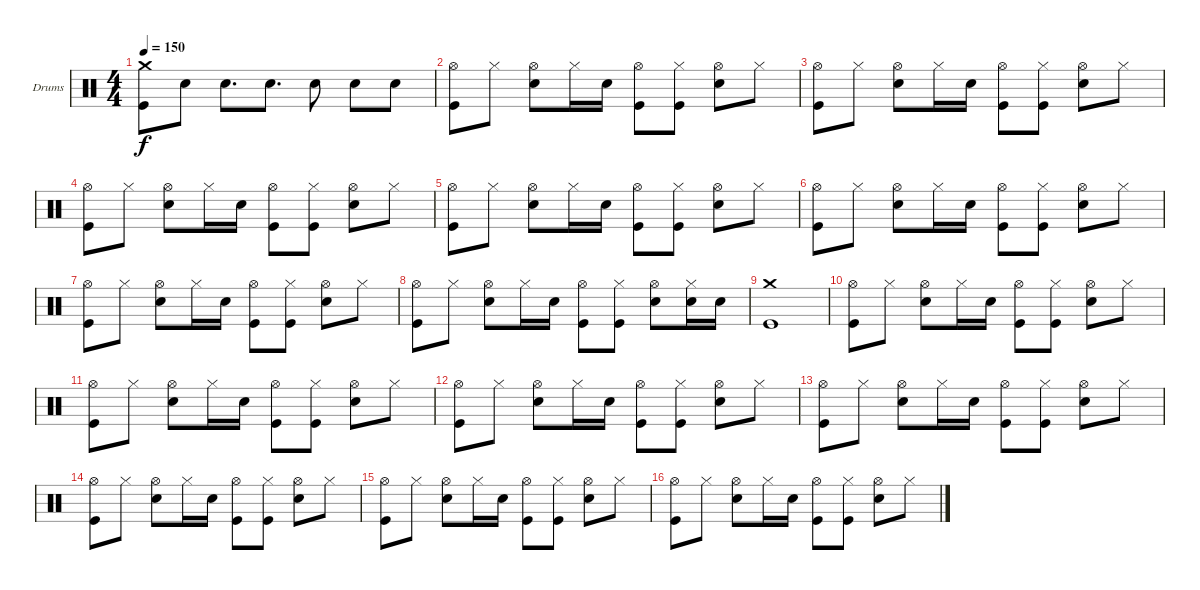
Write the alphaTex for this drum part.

\bracketExtendMode groupsimilarinstruments
\firstSystemTrackNameOrientation horizontal
\otherSystemsTrackNameOrientation horizontal
\track ("Drumkit" "Drums") {instrument percussion}
\staff {score}
\articulation defaults
\ts (4 4)
\tempo 150
\clef neutral
\ks c
("Crash medium (hit)" "Kick (hit)").8{dy f} "Snare (hit) 2".8 "Snare (hit) 2".8{d} "Snare (hit) 2".8{d} "Snare (hit) 2".8 "Snare (hit) 2".8 "Snare (hit) 2".8 |
("Hi-Hat (open)" "Kick (hit)").8 "Hi-Hat (closed)".8 ("Hi-Hat (open)" "Snare (hit) 2").8 "Hi-Hat (closed)".16 "Snare (hit) 2".16 ("Hi-Hat (open)" "Kick (hit)").8 ("Hi-Hat (closed)" "Kick (hit)").8 ("Hi-Hat (open)" "Snare (hit) 2").8 "Hi-Hat (closed)".8 |
("Hi-Hat (open)" "Kick (hit)").8 "Hi-Hat (closed)".8 ("Hi-Hat (open)" "Snare (hit) 2").8 "Hi-Hat (closed)".16 "Snare (hit) 2".16 ("Hi-Hat (open)" "Kick (hit)").8 ("Hi-Hat (closed)" "Kick (hit)").8 ("Hi-Hat (open)" "Snare (hit) 2").8 "Hi-Hat (closed)".8 |
("Hi-Hat (open)" "Kick (hit)").8 "Hi-Hat (closed)".8 ("Hi-Hat (open)" "Snare (hit) 2").8 "Hi-Hat (closed)".16 "Snare (hit) 2".16 ("Hi-Hat (open)" "Kick (hit)").8 ("Hi-Hat (closed)" "Kick (hit)").8 ("Hi-Hat (open)" "Snare (hit) 2").8 "Hi-Hat (closed)".8 |
("Hi-Hat (open)" "Kick (hit)").8 "Hi-Hat (closed)".8 ("Hi-Hat (open)" "Snare (hit) 2").8 "Hi-Hat (closed)".16 "Snare (hit) 2".16 ("Hi-Hat (open)" "Kick (hit)").8 ("Hi-Hat (closed)" "Kick (hit)").8 ("Hi-Hat (open)" "Snare (hit) 2").8 "Hi-Hat (closed)".8 |
("Hi-Hat (open)" "Kick (hit)").8 "Hi-Hat (closed)".8 ("Hi-Hat (open)" "Snare (hit) 2").8 "Hi-Hat (closed)".16 "Snare (hit) 2".16 ("Hi-Hat (open)" "Kick (hit)").8 ("Hi-Hat (closed)" "Kick (hit)").8 ("Hi-Hat (open)" "Snare (hit) 2").8 "Hi-Hat (closed)".8 |
("Hi-Hat (open)" "Kick (hit)").8 "Hi-Hat (closed)".8 ("Hi-Hat (open)" "Snare (hit) 2").8 "Hi-Hat (closed)".16 "Snare (hit) 2".16 ("Hi-Hat (open)" "Kick (hit)").8 ("Hi-Hat (closed)" "Kick (hit)").8 ("Hi-Hat (open)" "Snare (hit) 2").8 "Hi-Hat (closed)".8 |
("Hi-Hat (open)" "Kick (hit)").8 "Hi-Hat (closed)".8 ("Hi-Hat (open)" "Snare (hit) 2").8 "Hi-Hat (closed)".16 "Snare (hit) 2".16 ("Hi-Hat (open)" "Kick (hit)").8 ("Hi-Hat (closed)" "Kick (hit)").8 ("Hi-Hat (open)" "Snare (hit) 2").8 ("Hi-Hat (closed)" "Snare (hit) 2").16 "Snare (hit) 2".16 |
("Crash medium (hit)" "Kick (hit)").1 |
("Hi-Hat (open)" "Kick (hit)").8 "Hi-Hat (closed)".8 ("Hi-Hat (open)" "Snare (hit) 2").8 "Hi-Hat (closed)".16 "Snare (hit) 2".16 ("Hi-Hat (open)" "Kick (hit)").8 ("Hi-Hat (closed)" "Kick (hit)").8 ("Hi-Hat (open)" "Snare (hit) 2").8 "Hi-Hat (closed)".8 |
("Hi-Hat (open)" "Kick (hit)").8 "Hi-Hat (closed)".8 ("Hi-Hat (open)" "Snare (hit) 2").8 "Hi-Hat (closed)".16 "Snare (hit) 2".16 ("Hi-Hat (open)" "Kick (hit)").8 ("Hi-Hat (closed)" "Kick (hit)").8 ("Hi-Hat (open)" "Snare (hit) 2").8 "Hi-Hat (closed)".8 |
("Hi-Hat (open)" "Kick (hit)").8 "Hi-Hat (closed)".8 ("Hi-Hat (open)" "Snare (hit) 2").8 "Hi-Hat (closed)".16 "Snare (hit) 2".16 ("Hi-Hat (open)" "Kick (hit)").8 ("Hi-Hat (closed)" "Kick (hit)").8 ("Hi-Hat (open)" "Snare (hit) 2").8 "Hi-Hat (closed)".8 |
("Hi-Hat (open)" "Kick (hit)").8 "Hi-Hat (closed)".8 ("Hi-Hat (open)" "Snare (hit) 2").8 "Hi-Hat (closed)".16 "Snare (hit) 2".16 ("Hi-Hat (open)" "Kick (hit)").8 ("Hi-Hat (closed)" "Kick (hit)").8 ("Hi-Hat (open)" "Snare (hit) 2").8 "Hi-Hat (closed)".8 |
("Hi-Hat (open)" "Kick (hit)").8 "Hi-Hat (closed)".8 ("Hi-Hat (open)" "Snare (hit) 2").8 "Hi-Hat (closed)".16 "Snare (hit) 2".16 ("Hi-Hat (open)" "Kick (hit)").8 ("Hi-Hat (closed)" "Kick (hit)").8 ("Hi-Hat (open)" "Snare (hit) 2").8 "Hi-Hat (closed)".8 |
("Hi-Hat (open)" "Kick (hit)").8 "Hi-Hat (closed)".8 ("Hi-Hat (open)" "Snare (hit) 2").8 "Hi-Hat (closed)".16 "Snare (hit) 2".16 ("Hi-Hat (open)" "Kick (hit)").8 ("Hi-Hat (closed)" "Kick (hit)").8 ("Hi-Hat (open)" "Snare (hit) 2").8 "Hi-Hat (closed)".8 |
("Hi-Hat (open)" "Kick (hit)").8 "Hi-Hat (closed)".8 ("Hi-Hat (open)" "Snare (hit) 2").8 "Hi-Hat (closed)".16 "Snare (hit) 2".16 ("Hi-Hat (open)" "Kick (hit)").8 ("Hi-Hat (closed)" "Kick (hit)").8 ("Hi-Hat (open)" "Snare (hit) 2").8 "Hi-Hat (closed)".8
